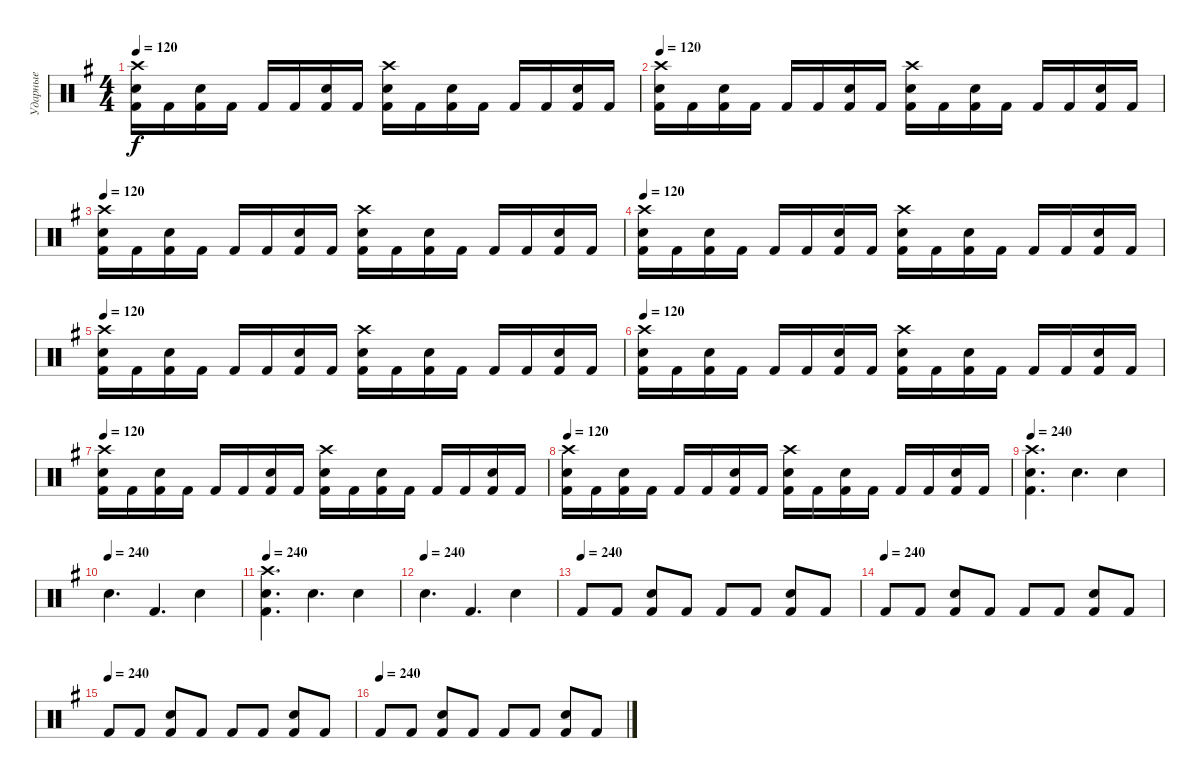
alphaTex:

\track ("Ударные" "Ударные") {solo instrument percussion}
\staff {score}
\articulation defaults
\ts (4 4)
\tempo 120
\clef neutral
\ks g
("Crash high (hit)" "Electric Snare (hit)" "Kick (hit) 2").16{dy f} "Kick (hit) 2".16 ("Electric Snare (hit)" "Kick (hit) 2").16 "Kick (hit) 2".16 "Kick (hit) 2".16 "Kick (hit) 2".16 ("Electric Snare (hit)" "Kick (hit) 2").16 "Kick (hit) 2".16 ("Crash high (hit)" "Electric Snare (hit)" "Kick (hit) 2").16 "Kick (hit) 2".16 ("Electric Snare (hit)" "Kick (hit) 2").16 "Kick (hit) 2".16 "Kick (hit) 2".16 "Kick (hit) 2".16 ("Electric Snare (hit)" "Kick (hit) 2").16 "Kick (hit) 2".16 |
\tempo 120
("Crash high (hit)" "Electric Snare (hit)" "Kick (hit) 2").16 "Kick (hit) 2".16 ("Electric Snare (hit)" "Kick (hit) 2").16 "Kick (hit) 2".16 "Kick (hit) 2".16 "Kick (hit) 2".16 ("Electric Snare (hit)" "Kick (hit) 2").16 "Kick (hit) 2".16 ("Crash high (hit)" "Electric Snare (hit)" "Kick (hit) 2").16 "Kick (hit) 2".16 ("Electric Snare (hit)" "Kick (hit) 2").16 "Kick (hit) 2".16 "Kick (hit) 2".16 "Kick (hit) 2".16 ("Electric Snare (hit)" "Kick (hit) 2").16 "Kick (hit) 2".16 |
\tempo 120
("Crash high (hit)" "Electric Snare (hit)" "Kick (hit) 2").16 "Kick (hit) 2".16 ("Electric Snare (hit)" "Kick (hit) 2").16 "Kick (hit) 2".16 "Kick (hit) 2".16 "Kick (hit) 2".16 ("Electric Snare (hit)" "Kick (hit) 2").16 "Kick (hit) 2".16 ("Crash high (hit)" "Electric Snare (hit)" "Kick (hit) 2").16 "Kick (hit) 2".16 ("Electric Snare (hit)" "Kick (hit) 2").16 "Kick (hit) 2".16 "Kick (hit) 2".16 "Kick (hit) 2".16 ("Electric Snare (hit)" "Kick (hit) 2").16 "Kick (hit) 2".16 |
\tempo 120
("Crash high (hit)" "Electric Snare (hit)" "Kick (hit) 2").16 "Kick (hit) 2".16 ("Electric Snare (hit)" "Kick (hit) 2").16 "Kick (hit) 2".16 "Kick (hit) 2".16 "Kick (hit) 2".16 ("Electric Snare (hit)" "Kick (hit) 2").16 "Kick (hit) 2".16 ("Crash high (hit)" "Electric Snare (hit)" "Kick (hit) 2").16 "Kick (hit) 2".16 ("Electric Snare (hit)" "Kick (hit) 2").16 "Kick (hit) 2".16 "Kick (hit) 2".16 "Kick (hit) 2".16 ("Electric Snare (hit)" "Kick (hit) 2").16 "Kick (hit) 2".16 |
\tempo 120
("Crash high (hit)" "Electric Snare (hit)" "Kick (hit) 2").16 "Kick (hit) 2".16 ("Electric Snare (hit)" "Kick (hit) 2").16 "Kick (hit) 2".16 "Kick (hit) 2".16 "Kick (hit) 2".16 ("Electric Snare (hit)" "Kick (hit) 2").16 "Kick (hit) 2".16 ("Crash high (hit)" "Electric Snare (hit)" "Kick (hit) 2").16 "Kick (hit) 2".16 ("Electric Snare (hit)" "Kick (hit) 2").16 "Kick (hit) 2".16 "Kick (hit) 2".16 "Kick (hit) 2".16 ("Electric Snare (hit)" "Kick (hit) 2").16 "Kick (hit) 2".16 |
\tempo 120
("Crash high (hit)" "Electric Snare (hit)" "Kick (hit) 2").16 "Kick (hit) 2".16 ("Electric Snare (hit)" "Kick (hit) 2").16 "Kick (hit) 2".16 "Kick (hit) 2".16 "Kick (hit) 2".16 ("Electric Snare (hit)" "Kick (hit) 2").16 "Kick (hit) 2".16 ("Crash high (hit)" "Electric Snare (hit)" "Kick (hit) 2").16 "Kick (hit) 2".16 ("Electric Snare (hit)" "Kick (hit) 2").16 "Kick (hit) 2".16 "Kick (hit) 2".16 "Kick (hit) 2".16 ("Electric Snare (hit)" "Kick (hit) 2").16 "Kick (hit) 2".16 |
\tempo 120
("Crash high (hit)" "Electric Snare (hit)" "Kick (hit) 2").16 "Kick (hit) 2".16 ("Electric Snare (hit)" "Kick (hit) 2").16 "Kick (hit) 2".16 "Kick (hit) 2".16 "Kick (hit) 2".16 ("Electric Snare (hit)" "Kick (hit) 2").16 "Kick (hit) 2".16 ("Crash high (hit)" "Electric Snare (hit)" "Kick (hit) 2").16 "Kick (hit) 2".16 ("Electric Snare (hit)" "Kick (hit) 2").16 "Kick (hit) 2".16 "Kick (hit) 2".16 "Kick (hit) 2".16 ("Electric Snare (hit)" "Kick (hit) 2").16 "Kick (hit) 2".16 |
\tempo 120
("Crash high (hit)" "Electric Snare (hit)" "Kick (hit) 2").16 "Kick (hit) 2".16 ("Electric Snare (hit)" "Kick (hit) 2").16 "Kick (hit) 2".16 "Kick (hit) 2".16 "Kick (hit) 2".16 ("Electric Snare (hit)" "Kick (hit) 2").16 "Kick (hit) 2".16 ("Crash high (hit)" "Electric Snare (hit)" "Kick (hit) 2").16 "Kick (hit) 2".16 ("Electric Snare (hit)" "Kick (hit) 2").16 "Kick (hit) 2".16 "Kick (hit) 2".16 "Kick (hit) 2".16 ("Electric Snare (hit)" "Kick (hit) 2").16 "Kick (hit) 2".16 |
\tempo 240
("Crash high (hit)" "Electric Snare (hit)" "Kick (hit) 2").4{d} "Electric Snare (hit)".4{d} "Electric Snare (hit)".4 |
\tempo (240)
"Electric Snare (hit)".4{d} "Kick (hit) 2".4{d} "Electric Snare (hit)".4 |
\tempo 240
("Crash high (hit)" "Electric Snare (hit)" "Kick (hit) 2").4{d} "Electric Snare (hit)".4{d} "Electric Snare (hit)".4 |
\tempo (240)
"Electric Snare (hit)".4{d} "Kick (hit) 2".4{d} "Electric Snare (hit)".4 |
\tempo (240)
"Kick (hit) 2".8 "Kick (hit) 2".8 ("Electric Snare (hit)" "Kick (hit) 2").8 "Kick (hit) 2".8 "Kick (hit) 2".8 "Kick (hit) 2".8 ("Electric Snare (hit)" "Kick (hit) 2").8 "Kick (hit) 2".8 |
\tempo (240)
"Kick (hit) 2".8 "Kick (hit) 2".8 ("Electric Snare (hit)" "Kick (hit) 2").8 "Kick (hit) 2".8 "Kick (hit) 2".8 "Kick (hit) 2".8 ("Electric Snare (hit)" "Kick (hit) 2").8 "Kick (hit) 2".8 |
\tempo (240)
"Kick (hit) 2".8 "Kick (hit) 2".8 ("Electric Snare (hit)" "Kick (hit) 2").8 "Kick (hit) 2".8 "Kick (hit) 2".8 "Kick (hit) 2".8 ("Electric Snare (hit)" "Kick (hit) 2").8 "Kick (hit) 2".8 |
\tempo (240)
"Kick (hit) 2".8 "Kick (hit) 2".8 ("Electric Snare (hit)" "Kick (hit) 2").8 "Kick (hit) 2".8 "Kick (hit) 2".8 "Kick (hit) 2".8 ("Electric Snare (hit)" "Kick (hit) 2").8 "Kick (hit) 2".8
